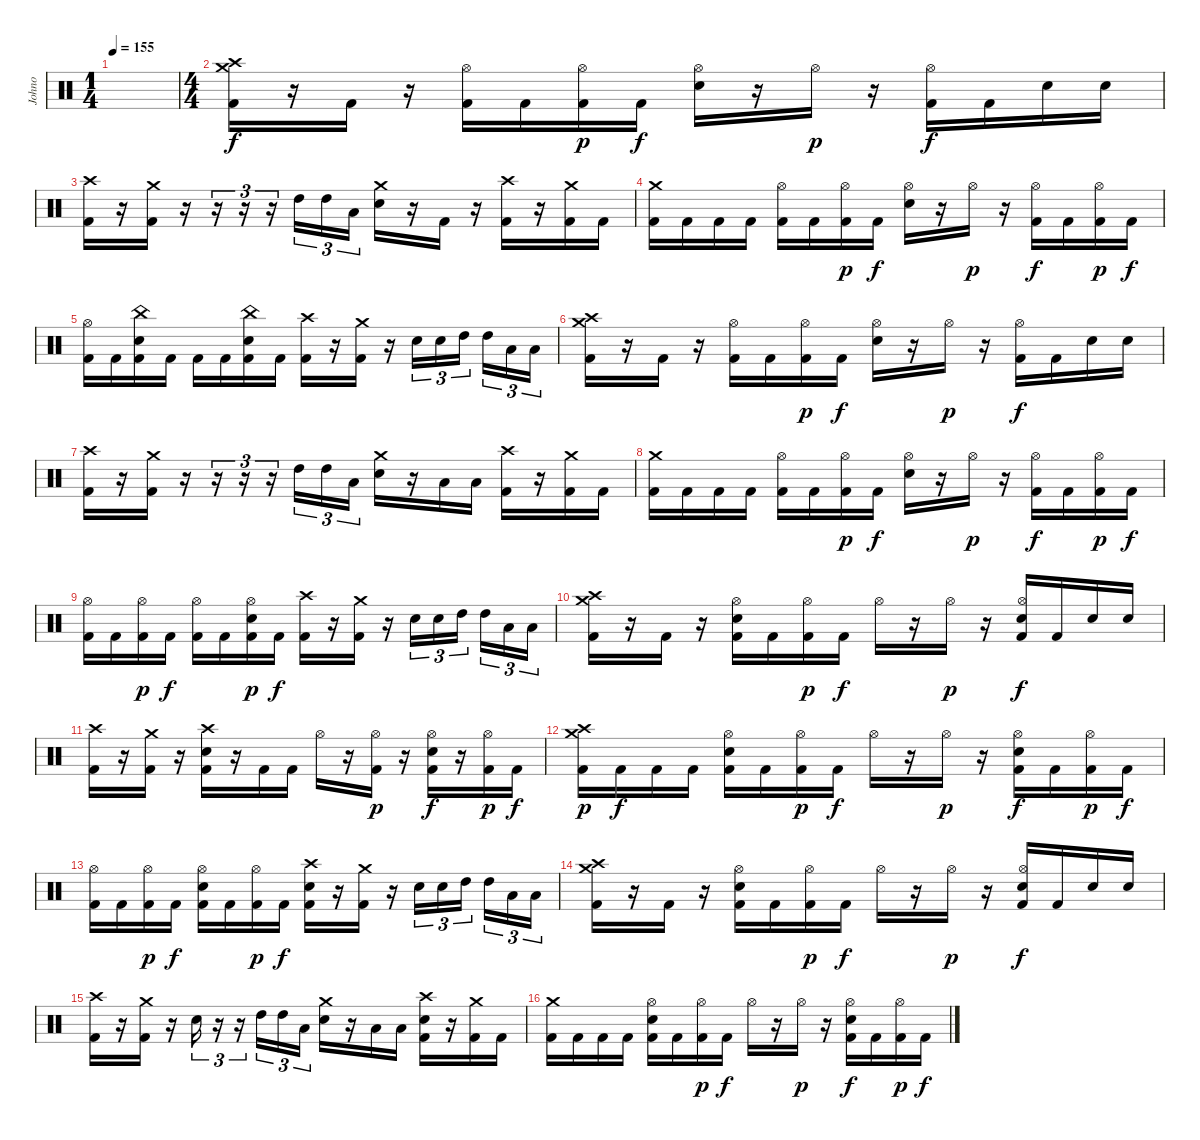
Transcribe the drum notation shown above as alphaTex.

\track ("Johno" "Johno") {instrument percussion}
\staff {score}
\articulation defaults
\ts (1 4)
\tempo 155
\clef neutral
\ks c
|
\ts (4 4)
("Crash medium (hit)" "Crash high (hit)" "Kick (hit) 2").16 r.16 "Kick (hit) 2".16 r.16 ("Hi-Hat (open)" "Kick (hit) 2").16 "Kick (hit) 2".16 ("Hi-Hat (open)" "Kick (hit) 2").16{dy p} "Kick (hit) 2".16{dy f} ("Hi-Hat (open)" "Electric Snare (hit)").16 r.16 "Hi-Hat (open)".16{dy p} r.16 ("Hi-Hat (open)" "Kick (hit) 2").16{dy f} "Kick (hit) 2".16 "Electric Snare (hit)".16 "Electric Snare (hit)".16 |
("Crash high (hit)" "Kick (hit) 2").16 r.16 ("Crash medium (hit)" "Kick (hit) 2").16 r.16 r.16{tu (3 2)} r.16{tu (3 2)} r.16{tu (3 2)} "High Tom (hit)".16{tu (3 2)} "High Tom (hit)".16{tu (3 2)} "Low Floor Tom (hit)".16{tu (3 2)} ("Crash medium (hit)" "Electric Snare (hit)").16 r.16 "Kick (hit) 2".16 r.16 ("Crash high (hit)" "Kick (hit) 2").16 r.16 ("Crash medium (hit)" "Kick (hit) 2").16 "Kick (hit) 2".16 |
("Crash medium (hit)" "Kick (hit) 2").16 "Kick (hit) 2".16 "Kick (hit) 2".16 "Kick (hit) 2".16 ("Hi-Hat (open)" "Kick (hit) 2").16 "Kick (hit) 2".16 ("Hi-Hat (open)" "Kick (hit) 2").16{dy p} "Kick (hit) 2".16{dy f} ("Hi-Hat (open)" "Electric Snare (hit)").16 r.16 "Hi-Hat (open)".16{dy p} r.16 ("Hi-Hat (open)" "Kick (hit) 2").16{dy f} "Kick (hit) 2".16 ("Hi-Hat (open)" "Kick (hit) 2").16{dy p} "Kick (hit) 2".16{dy f} |
("Hi-Hat (open)" "Kick (hit) 2").16 "Kick (hit) 2".16 ("China (hit)" "Electric Snare (hit)" "Kick (hit) 2").16 "Kick (hit) 2".16 "Kick (hit) 2".16 "Kick (hit) 2".16 ("China (hit)" "Electric Snare (hit)" "Kick (hit) 2").16 "Kick (hit) 2".16 ("Crash high (hit)" "Kick (hit) 2").16 r.16 ("Crash medium (hit)" "Kick (hit) 2").16 r.16 "Electric Snare (hit)".16{tu (3 2)} "Electric Snare (hit)".16{tu (3 2)} "High Tom (hit)".16{tu (3 2) beam splitsecondary} "High Tom (hit)".16{tu (3 2)} "Low Floor Tom (hit)".16{tu (3 2)} "Low Floor Tom (hit)".16{tu (3 2)} |
("Crash medium (hit)" "Crash high (hit)" "Kick (hit) 2").16 r.16 "Kick (hit) 2".16 r.16 ("Hi-Hat (open)" "Kick (hit) 2").16 "Kick (hit) 2".16 ("Hi-Hat (open)" "Kick (hit) 2").16{dy p} "Kick (hit) 2".16{dy f} ("Hi-Hat (open)" "Electric Snare (hit)").16 r.16 "Hi-Hat (open)".16{dy p} r.16 ("Hi-Hat (open)" "Kick (hit) 2").16{dy f} "Kick (hit) 2".16 "Electric Snare (hit)".16 "Electric Snare (hit)".16 |
("Crash high (hit)" "Kick (hit) 2").16 r.16 ("Crash medium (hit)" "Kick (hit) 2").16 r.16 r.16{tu (3 2)} r.16{tu (3 2)} r.16{tu (3 2)} "High Tom (hit)".16{tu (3 2)} "High Tom (hit)".16{tu (3 2)} "Low Floor Tom (hit)".16{tu (3 2)} ("Crash medium (hit)" "Electric Snare (hit)").16 r.16 "Low Floor Tom (hit)".16 "Low Floor Tom (hit)".16 ("Crash high (hit)" "Kick (hit) 2").16 r.16 ("Crash medium (hit)" "Kick (hit) 2").16 "Kick (hit) 2".16 |
("Crash medium (hit)" "Kick (hit) 2").16 "Kick (hit) 2".16 "Kick (hit) 2".16 "Kick (hit) 2".16 ("Hi-Hat (open)" "Kick (hit) 2").16 "Kick (hit) 2".16 ("Hi-Hat (open)" "Kick (hit) 2").16{dy p} "Kick (hit) 2".16{dy f} ("Hi-Hat (open)" "Electric Snare (hit)").16 r.16 "Hi-Hat (open)".16{dy p} r.16 ("Hi-Hat (open)" "Kick (hit) 2").16{dy f} "Kick (hit) 2".16 ("Hi-Hat (open)" "Kick (hit) 2").16{dy p} "Kick (hit) 2".16{dy f} |
("Hi-Hat (open)" "Kick (hit) 2").16 "Kick (hit) 2".16 ("Hi-Hat (open)" "Kick (hit) 2").16{dy p} "Kick (hit) 2".16{dy f} ("Hi-Hat (open)" "Kick (hit) 2").16 "Kick (hit) 2".16 ("Hi-Hat (open)" "Electric Snare (hit)" "Kick (hit) 2").16{dy p} "Kick (hit) 2".16{dy f} ("Crash high (hit)" "Kick (hit) 2").16 r.16 ("Crash medium (hit)" "Kick (hit) 2").16 r.16 "Electric Snare (hit)".16{tu (3 2)} "Electric Snare (hit)".16{tu (3 2)} "High Tom (hit)".16{tu (3 2) beam splitsecondary} "High Tom (hit)".16{tu (3 2)} "Low Floor Tom (hit)".16{tu (3 2)} "Low Floor Tom (hit)".16{tu (3 2)} |
("Crash medium (hit)" "Crash high (hit)" "Kick (hit) 2").16 r.16 "Kick (hit) 2".16 r.16 ("Hi-Hat (open)" "Electric Snare (hit)" "Kick (hit) 2").16 "Kick (hit) 2".16 ("Hi-Hat (open)" "Kick (hit) 2").16{dy p} "Kick (hit) 2".16{dy f} "Hi-Hat (open)".16 r.16 "Hi-Hat (open)".16{dy p} r.16 ("Hi-Hat (open)" "Electric Snare (hit)" "Kick (hit) 2").16{dy f} "Kick (hit) 2".16 "Electric Snare (hit)".16 "Electric Snare (hit)".16 |
("Crash high (hit)" "Kick (hit) 2").16 r.16 ("Crash medium (hit)" "Kick (hit) 2").16 r.16 ("Crash high (hit)" "Electric Snare (hit)" "Kick (hit) 2").16 r.16 "Kick (hit) 2".16 "Kick (hit) 2".16 "Hi-Hat (open)".16 r.16 ("Hi-Hat (open)" "Kick (hit) 2").16{dy p} r.16 ("Hi-Hat (open)" "Electric Snare (hit)" "Kick (hit) 2").16{dy f} r.16 ("Hi-Hat (open)" "Kick (hit) 2").16{dy p} "Kick (hit) 2".16{dy f} |
("Crash medium (hit)" "Crash high (hit)" "Kick (hit) 2").16{dy p} "Kick (hit) 2".16{dy f} "Kick (hit) 2".16 "Kick (hit) 2".16 ("Hi-Hat (open)" "Electric Snare (hit)" "Kick (hit) 2").16 "Kick (hit) 2".16 ("Hi-Hat (open)" "Kick (hit) 2").16{dy p} "Kick (hit) 2".16{dy f} "Hi-Hat (open)".16 r.16 "Hi-Hat (open)".16{dy p} r.16 ("Hi-Hat (open)" "Electric Snare (hit)" "Kick (hit) 2").16{dy f} "Kick (hit) 2".16 ("Hi-Hat (open)" "Kick (hit) 2").16{dy p} "Kick (hit) 2".16{dy f} |
("Hi-Hat (open)" "Kick (hit) 2").16 "Kick (hit) 2".16 ("Hi-Hat (open)" "Kick (hit) 2").16{dy p} "Kick (hit) 2".16{dy f} ("Hi-Hat (open)" "Electric Snare (hit)" "Kick (hit) 2").16 "Kick (hit) 2".16 ("Hi-Hat (open)" "Kick (hit) 2").16{dy p} "Kick (hit) 2".16{dy f} ("Crash high (hit)" "Electric Snare (hit)" "Kick (hit) 2").16 r.16 ("Crash medium (hit)" "Kick (hit) 2").16 r.16 "Electric Snare (hit)".16{tu (3 2)} "Electric Snare (hit)".16{tu (3 2)} "High Tom (hit)".16{tu (3 2) beam splitsecondary} "High Tom (hit)".16{tu (3 2)} "Low Floor Tom (hit)".16{tu (3 2)} "Low Floor Tom (hit)".16{tu (3 2)} |
("Crash medium (hit)" "Crash high (hit)" "Kick (hit) 2").16 r.16 "Kick (hit) 2".16 r.16 ("Hi-Hat (open)" "Electric Snare (hit)" "Kick (hit) 2").16 "Kick (hit) 2".16 ("Hi-Hat (open)" "Kick (hit) 2").16{dy p} "Kick (hit) 2".16{dy f} "Hi-Hat (open)".16 r.16 "Hi-Hat (open)".16{dy p} r.16 ("Hi-Hat (open)" "Electric Snare (hit)" "Kick (hit) 2").16{dy f} "Kick (hit) 2".16 "Electric Snare (hit)".16 "Electric Snare (hit)".16 |
("Crash high (hit)" "Kick (hit) 2").16 r.16 ("Crash medium (hit)" "Kick (hit) 2").16 r.16 "Electric Snare (hit)".16{tu (3 2)} r.16{tu (3 2)} r.16{tu (3 2)} "High Tom (hit)".16{tu (3 2)} "High Tom (hit)".16{tu (3 2)} "Low Floor Tom (hit)".16{tu (3 2)} ("Crash medium (hit)" "Electric Snare (hit)").16 r.16 "Low Floor Tom (hit)".16 "Low Floor Tom (hit)".16 ("Crash high (hit)" "Electric Snare (hit)" "Kick (hit) 2").16 r.16 ("Crash medium (hit)" "Kick (hit) 2").16 "Kick (hit) 2".16 |
("Crash medium (hit)" "Kick (hit) 2").16 "Kick (hit) 2".16 "Kick (hit) 2".16 "Kick (hit) 2".16 ("Hi-Hat (open)" "Electric Snare (hit)" "Kick (hit) 2").16 "Kick (hit) 2".16 ("Hi-Hat (open)" "Kick (hit) 2").16{dy p} "Kick (hit) 2".16{dy f} "Hi-Hat (open)".16 r.16 "Hi-Hat (open)".16{dy p} r.16 ("Hi-Hat (open)" "Electric Snare (hit)" "Kick (hit) 2").16{dy f} "Kick (hit) 2".16 ("Hi-Hat (open)" "Kick (hit) 2").16{dy p} "Kick (hit) 2".16{dy f}
